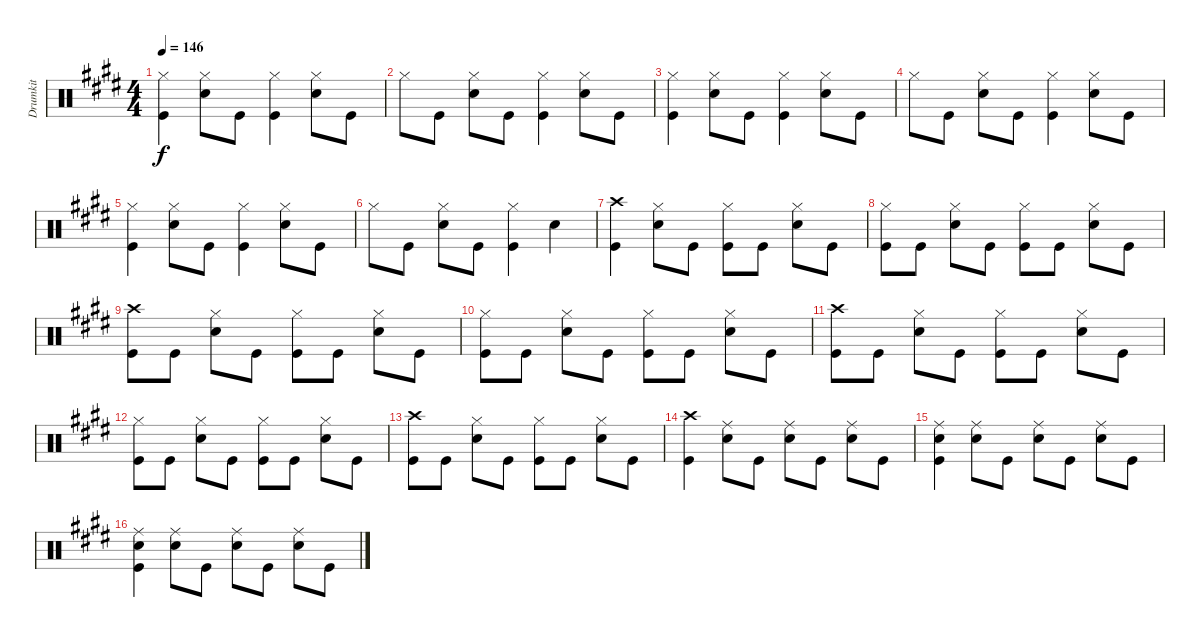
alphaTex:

\track ("Drumkit" "Drumkit") {instrument percussion}
\staff {score}
\articulation defaults
\ts (4 4)
\tempo 146
\clef neutral
\ks e
("Kick (hit)" "Hi-Hat (closed)").4{dy f} ("Snare (hit) 2" "Hi-Hat (closed)").8 "Kick (hit)".8 ("Kick (hit)" "Hi-Hat (closed)").4 ("Snare (hit) 2" "Hi-Hat (closed)").8 "Kick (hit)".8 |
"Hi-Hat (closed)".8 "Kick (hit)".8 ("Snare (hit) 2" "Hi-Hat (closed)").8 "Kick (hit)".8 ("Kick (hit)" "Hi-Hat (closed)").4 ("Snare (hit) 2" "Hi-Hat (closed)").8 "Kick (hit)".8 |
("Kick (hit)" "Hi-Hat (closed)").4 ("Snare (hit) 2" "Hi-Hat (closed)").8 "Kick (hit)".8 ("Kick (hit)" "Hi-Hat (closed)").4 ("Snare (hit) 2" "Hi-Hat (closed)").8 "Kick (hit)".8 |
"Hi-Hat (closed)".8 "Kick (hit)".8 ("Snare (hit) 2" "Hi-Hat (closed)").8 "Kick (hit)".8 ("Kick (hit)" "Hi-Hat (closed)").4 ("Snare (hit) 2" "Hi-Hat (closed)").8 "Kick (hit)".8 |
("Kick (hit)" "Hi-Hat (closed)").4 ("Snare (hit) 2" "Hi-Hat (closed)").8 "Kick (hit)".8 ("Kick (hit)" "Hi-Hat (closed)").4 ("Snare (hit) 2" "Hi-Hat (closed)").8 "Kick (hit)".8 |
"Hi-Hat (closed)".8 "Kick (hit)".8 ("Snare (hit) 2" "Hi-Hat (closed)").8 "Kick (hit)".8 ("Kick (hit)" "Hi-Hat (closed)").4 "Snare (hit) 2".4 |
("Kick (hit)" "Crash high (hit)").4 ("Snare (hit) 2" "Hi-Hat (closed)").8 "Kick (hit)".8 ("Kick (hit)" "Hi-Hat (closed)").8 "Kick (hit)".8 ("Snare (hit) 2" "Hi-Hat (closed)").8 "Kick (hit)".8 |
("Kick (hit)" "Hi-Hat (closed)").8 "Kick (hit)".8 ("Snare (hit) 2" "Hi-Hat (closed)").8 "Kick (hit)".8 ("Kick (hit)" "Hi-Hat (closed)").8 "Kick (hit)".8 ("Snare (hit) 2" "Hi-Hat (closed)").8 "Kick (hit)".8 |
("Kick (hit)" "Crash high (hit)").8 "Kick (hit)".8 ("Snare (hit) 2" "Hi-Hat (closed)").8 "Kick (hit)".8 ("Kick (hit)" "Hi-Hat (closed)").8 "Kick (hit)".8 ("Snare (hit) 2" "Hi-Hat (closed)").8 "Kick (hit)".8 |
("Kick (hit)" "Hi-Hat (closed)").8 "Kick (hit)".8 ("Snare (hit) 2" "Hi-Hat (closed)").8 "Kick (hit)".8 ("Kick (hit)" "Hi-Hat (closed)").8 "Kick (hit)".8 ("Snare (hit) 2" "Hi-Hat (closed)").8 "Kick (hit)".8 |
("Kick (hit)" "Crash high (hit)").8 "Kick (hit)".8 ("Snare (hit) 2" "Hi-Hat (closed)").8 "Kick (hit)".8 ("Kick (hit)" "Hi-Hat (closed)").8 "Kick (hit)".8 ("Snare (hit) 2" "Hi-Hat (closed)").8 "Kick (hit)".8 |
("Kick (hit)" "Hi-Hat (closed)").8 "Kick (hit)".8 ("Snare (hit) 2" "Hi-Hat (closed)").8 "Kick (hit)".8 ("Kick (hit)" "Hi-Hat (closed)").8 "Kick (hit)".8 ("Snare (hit) 2" "Hi-Hat (closed)").8 "Kick (hit)".8 |
("Kick (hit)" "Crash high (hit)").8 "Kick (hit)".8 ("Snare (hit) 2" "Hi-Hat (closed)").8 "Kick (hit)".8 ("Kick (hit)" "Hi-Hat (closed)").8 "Kick (hit)".8 ("Snare (hit) 2" "Hi-Hat (closed)").8 "Kick (hit)".8 |
("Kick (hit)" "Crash high (hit)").4 ("Snare (hit) 2" "Ride (middle)").8 "Kick (hit)".8 ("Snare (hit) 2" "Ride (middle)").8 "Kick (hit)".8 ("Snare (hit) 2" "Ride (middle)").8 "Kick (hit)".8 |
("Kick (hit)" "Snare (hit) 2" "Ride (middle)").4 ("Snare (hit) 2" "Ride (middle)").8 "Kick (hit)".8 ("Snare (hit) 2" "Ride (middle)").8 "Kick (hit)".8 ("Snare (hit) 2" "Ride (middle)").8 "Kick (hit)".8 |
("Kick (hit)" "Snare (hit) 2" "Ride (middle)").4 ("Snare (hit) 2" "Ride (middle)").8 "Kick (hit)".8 ("Snare (hit) 2" "Ride (middle)").8 "Kick (hit)".8 ("Snare (hit) 2" "Ride (middle)").8 "Kick (hit)".8
